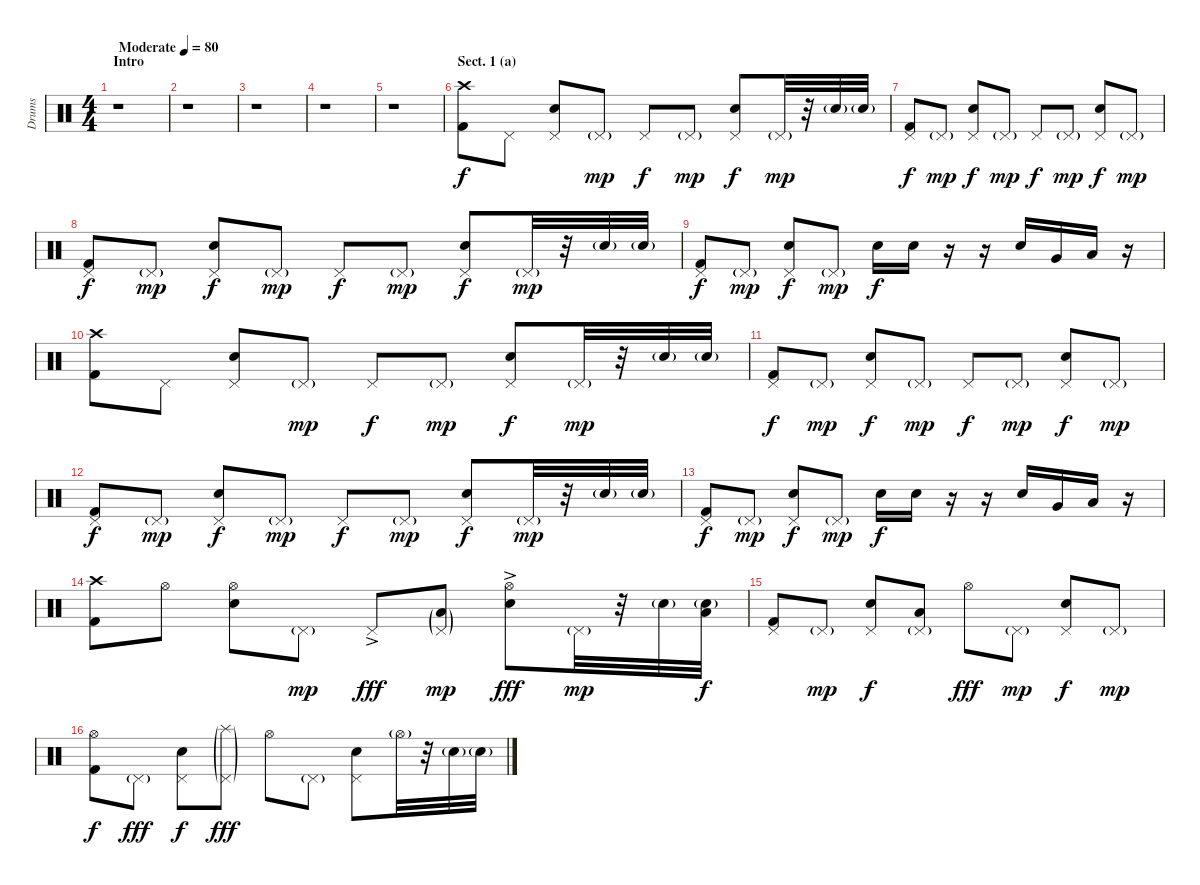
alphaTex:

\track ("Drums" "Drums") {instrument percussion}
\staff {score}
\articulation defaults
\ts (4 4)
\section ("" "Intro")
\tempo (80 "Moderate")
\clef neutral
\ks c
r.1{dy f} |
r.1 |
r.1 |
r.1 |
r.1 |
\section ("" "Sect. 1 (a)")
("Crash high (hit)" "Kick (hit) 2").8 "Pedal Hi-Hat (hit)".8 ("Pedal Hi-Hat (hit)" "Electric Snare (hit)").8 "Pedal Hi-Hat (hit)"{g}.8{dy mp} "Pedal Hi-Hat (hit)".8{dy f} "Pedal Hi-Hat (hit)"{g}.8{dy mp} ("Pedal Hi-Hat (hit)" "Electric Snare (hit)").8{dy f} "Pedal Hi-Hat (hit)"{g}.32{dy mp} r.32 "Electric Snare (hit)"{g}.32 "Electric Snare (hit)"{g}.32 |
("Pedal Hi-Hat (hit)" "Kick (hit) 2").8{dy f} "Pedal Hi-Hat (hit)"{g}.8{dy mp} ("Pedal Hi-Hat (hit)" "Electric Snare (hit)").8{dy f} "Pedal Hi-Hat (hit)"{g}.8{dy mp} "Pedal Hi-Hat (hit)".8{dy f} "Pedal Hi-Hat (hit)"{g}.8{dy mp} ("Pedal Hi-Hat (hit)" "Electric Snare (hit)").8{dy f} "Pedal Hi-Hat (hit)"{g}.8{dy mp} |
("Pedal Hi-Hat (hit)" "Kick (hit) 2").8{dy f} "Pedal Hi-Hat (hit)"{g}.8{dy mp} ("Pedal Hi-Hat (hit)" "Electric Snare (hit)").8{dy f} "Pedal Hi-Hat (hit)"{g}.8{dy mp} "Pedal Hi-Hat (hit)".8{dy f} "Pedal Hi-Hat (hit)"{g}.8{dy mp} ("Pedal Hi-Hat (hit)" "Electric Snare (hit)").8{dy f} "Pedal Hi-Hat (hit)"{g}.32{dy mp} r.32 "Electric Snare (hit)"{g}.32 "Electric Snare (hit)"{g}.32 |
("Pedal Hi-Hat (hit)" "Kick (hit) 2").8{dy f} "Pedal Hi-Hat (hit)"{g}.8{dy mp} ("Pedal Hi-Hat (hit)" "Electric Snare (hit)").8{dy f} "Pedal Hi-Hat (hit)"{g}.8{dy mp} "Electric Snare (hit)".16{dy f} "Electric Snare (hit)".16 r.16 r.16 "Electric Snare (hit)".16 "Very Low Tom (hit)".16 "Low Floor Tom (hit)".16 r.16 |
("Crash high (hit)" "Kick (hit) 2").8 "Pedal Hi-Hat (hit)".8 ("Pedal Hi-Hat (hit)" "Electric Snare (hit)").8 "Pedal Hi-Hat (hit)"{g}.8{dy mp} "Pedal Hi-Hat (hit)".8{dy f} "Pedal Hi-Hat (hit)"{g}.8{dy mp} ("Pedal Hi-Hat (hit)" "Electric Snare (hit)").8{dy f} "Pedal Hi-Hat (hit)"{g}.32{dy mp} r.32 "Electric Snare (hit)"{g}.32 "Electric Snare (hit)"{g}.32 |
("Pedal Hi-Hat (hit)" "Kick (hit) 2").8{dy f} "Pedal Hi-Hat (hit)"{g}.8{dy mp} ("Pedal Hi-Hat (hit)" "Electric Snare (hit)").8{dy f} "Pedal Hi-Hat (hit)"{g}.8{dy mp} "Pedal Hi-Hat (hit)".8{dy f} "Pedal Hi-Hat (hit)"{g}.8{dy mp} ("Pedal Hi-Hat (hit)" "Electric Snare (hit)").8{dy f} "Pedal Hi-Hat (hit)"{g}.8{dy mp} |
("Pedal Hi-Hat (hit)" "Kick (hit) 2").8{dy f} "Pedal Hi-Hat (hit)"{g}.8{dy mp} ("Pedal Hi-Hat (hit)" "Electric Snare (hit)").8{dy f} "Pedal Hi-Hat (hit)"{g}.8{dy mp} "Pedal Hi-Hat (hit)".8{dy f} "Pedal Hi-Hat (hit)"{g}.8{dy mp} ("Pedal Hi-Hat (hit)" "Electric Snare (hit)").8{dy f} "Pedal Hi-Hat (hit)"{g}.32{dy mp} r.32 "Electric Snare (hit)"{g}.32 "Electric Snare (hit)"{g}.32 |
("Pedal Hi-Hat (hit)" "Kick (hit) 2").8{dy f} "Pedal Hi-Hat (hit)"{g}.8{dy mp} ("Pedal Hi-Hat (hit)" "Electric Snare (hit)").8{dy f} "Pedal Hi-Hat (hit)"{g}.8{dy mp} "Electric Snare (hit)".16{dy f} "Electric Snare (hit)".16 r.16 r.16 "Electric Snare (hit)".16 "Very Low Tom (hit)".16 "Low Floor Tom (hit)".16 r.16 |
("Crash high (hit)" "Kick (hit) 2").8 "Hi-Hat (open)".8 ("Hi-Hat (open)" "Electric Snare (hit)").8 "Pedal Hi-Hat (hit)"{g}.8{dy mp} "Pedal Hi-Hat (hit)"{ac}.8{dy fff} ("Pedal Hi-Hat (hit)"{g} "Low Floor Tom (hit)"{g}).8{dy mp} ("Hi-Hat (open)"{ac} "Electric Snare (hit)"{ac}).8{dy fff} "Pedal Hi-Hat (hit)"{g}.32{dy mp} r.32 "Electric Snare (hit)"{g}.32 ("Electric Snare (hit)"{g} "Low Floor Tom (hit)").32{dy f} |
("Pedal Hi-Hat (hit)" "Kick (hit) 2").8 "Pedal Hi-Hat (hit)"{g}.8{dy mp} ("Pedal Hi-Hat (hit)" "Electric Snare (hit)").8{dy f} ("Pedal Hi-Hat (hit)"{g} "Low Floor Tom (hit)").8 "Hi-Hat (open)".8{dy fff} "Pedal Hi-Hat (hit)"{g}.8{dy mp} ("Pedal Hi-Hat (hit)" "Electric Snare (hit)").8{dy f} "Pedal Hi-Hat (hit)"{g}.8{dy mp} |
("Hi-Hat (open)" "Kick (hit) 2").8{dy f} "Pedal Hi-Hat (hit)"{g}.8{dy fff} ("Pedal Hi-Hat (hit)" "Electric Snare (hit)").8{dy f} ("Splash (hit)"{g} "Pedal Hi-Hat (hit)"{g}).8{dy fff} "Hi-Hat (open)".8 "Pedal Hi-Hat (hit)"{g}.8 ("Pedal Hi-Hat (hit)" "Electric Snare (hit)").8 "Hi-Hat (open)"{g}.32 r.32 "Electric Snare (hit)"{g}.32 "Electric Snare (hit)"{g}.32
